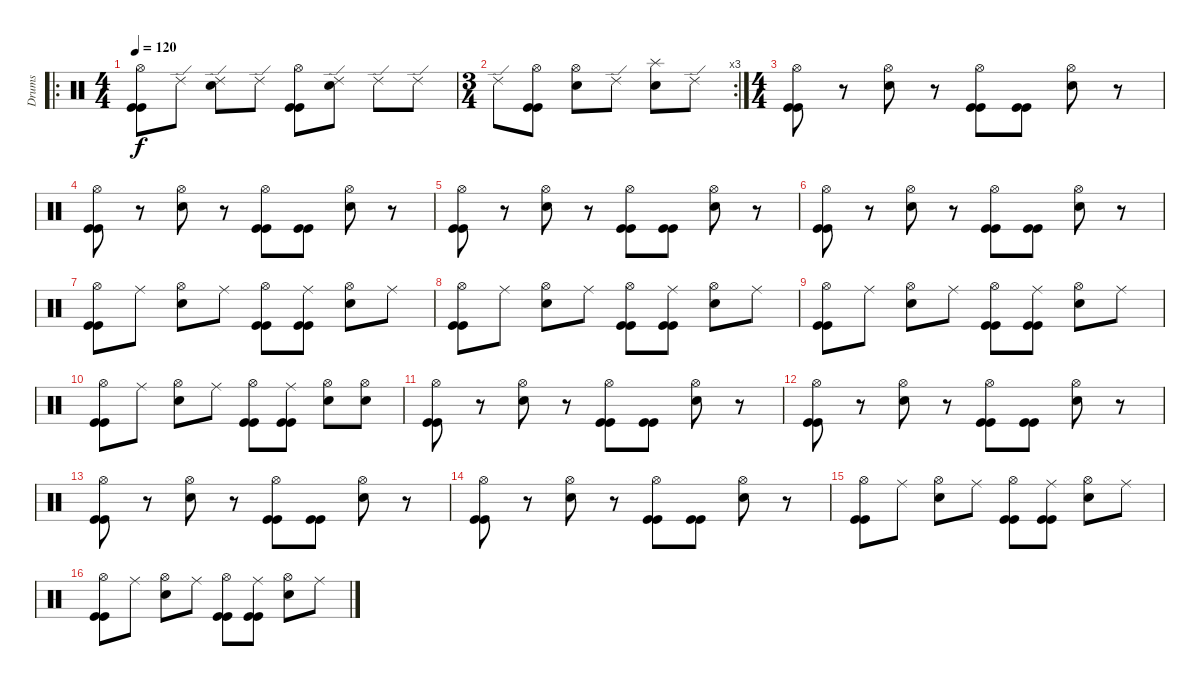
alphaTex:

\track ("Drums" "Drums") {instrument percussion}
\staff {score}
\articulation defaults
\ro
\ts (4 4)
\tempo 120
\clef neutral
\ks c
("Hi-Hat (open)" "Kick (hit)" "Kick (hit)").8{dy f} "Ride (edge) 2".8 ("Ride (edge) 2" "Electric Snare (hit)").8 "Ride (edge) 2".8 ("Hi-Hat (open)" "Kick (hit)" "Kick (hit)").8 ("Ride (edge) 2" "Electric Snare (hit)").8 "Ride (edge) 2".8 "Ride (edge) 2".8 |
\rc 3
\ts (3 4)
"Ride (edge) 2".8 ("Hi-Hat (open)" "Kick (hit)" "Kick (hit)").8 ("Hi-Hat (open)" "Electric Snare (hit)").8 "Ride (edge) 2".8 ("Splash (hit)" "Electric Snare (hit)").8 "Ride (edge) 2".8 |
\ts (4 4)
("Hi-Hat (open)" "Kick (hit)" "Kick (hit)").8 r.8 ("Hi-Hat (open)" "Electric Snare (hit)").8 r.8 ("Hi-Hat (open)" "Kick (hit)" "Kick (hit)").8 ("Kick (hit)" "Kick (hit)").8 ("Hi-Hat (open)" "Electric Snare (hit)").8 r.8 |
("Hi-Hat (open)" "Kick (hit)" "Kick (hit)").8 r.8 ("Hi-Hat (open)" "Electric Snare (hit)").8 r.8 ("Hi-Hat (open)" "Kick (hit)" "Kick (hit)").8 ("Kick (hit)" "Kick (hit)").8 ("Hi-Hat (open)" "Electric Snare (hit)").8 r.8 |
("Hi-Hat (open)" "Kick (hit)" "Kick (hit)").8 r.8 ("Hi-Hat (open)" "Electric Snare (hit)").8 r.8 ("Hi-Hat (open)" "Kick (hit)" "Kick (hit)").8 ("Kick (hit)" "Kick (hit)").8 ("Hi-Hat (open)" "Electric Snare (hit)").8 r.8 |
("Hi-Hat (open)" "Kick (hit)" "Kick (hit)").8 r.8 ("Hi-Hat (open)" "Electric Snare (hit)").8 r.8 ("Hi-Hat (open)" "Kick (hit)" "Kick (hit)").8 ("Kick (hit)" "Kick (hit)").8 ("Hi-Hat (open)" "Electric Snare (hit)").8 r.8 |
("Hi-Hat (open)" "Kick (hit)" "Kick (hit)").8 "Ride (middle)".8 ("Hi-Hat (open)" "Electric Snare (hit)").8 "Ride (middle)".8 ("Hi-Hat (open)" "Kick (hit)" "Kick (hit)").8 ("Ride (middle)" "Kick (hit)" "Kick (hit)").8 ("Hi-Hat (open)" "Electric Snare (hit)").8 "Ride (middle)".8 |
("Hi-Hat (open)" "Kick (hit)" "Kick (hit)").8 "Ride (middle)".8 ("Hi-Hat (open)" "Electric Snare (hit)").8 "Ride (middle)".8 ("Hi-Hat (open)" "Kick (hit)" "Kick (hit)").8 ("Ride (middle)" "Kick (hit)" "Kick (hit)").8 ("Hi-Hat (open)" "Electric Snare (hit)").8 "Ride (middle)".8 |
("Hi-Hat (open)" "Kick (hit)" "Kick (hit)").8 "Ride (middle)".8 ("Hi-Hat (open)" "Electric Snare (hit)").8 "Ride (middle)".8 ("Hi-Hat (open)" "Kick (hit)" "Kick (hit)").8 ("Ride (middle)" "Kick (hit)" "Kick (hit)").8 ("Hi-Hat (open)" "Electric Snare (hit)").8 "Ride (middle)".8 |
("Hi-Hat (open)" "Kick (hit)" "Kick (hit)").8 "Ride (middle)".8 ("Hi-Hat (open)" "Electric Snare (hit)").8 "Ride (middle)".8 ("Hi-Hat (open)" "Kick (hit)" "Kick (hit)").8 ("Ride (middle)" "Kick (hit)" "Kick (hit)").8 ("Hi-Hat (open)" "Electric Snare (hit)").8 ("Hi-Hat (open)" "Electric Snare (hit)").8 |
("Hi-Hat (open)" "Kick (hit)" "Kick (hit)").8 r.8 ("Hi-Hat (open)" "Electric Snare (hit)").8 r.8 ("Hi-Hat (open)" "Kick (hit)" "Kick (hit)").8 ("Kick (hit)" "Kick (hit)").8 ("Hi-Hat (open)" "Electric Snare (hit)").8 r.8 |
("Hi-Hat (open)" "Kick (hit)" "Kick (hit)").8 r.8 ("Hi-Hat (open)" "Electric Snare (hit)").8 r.8 ("Hi-Hat (open)" "Kick (hit)" "Kick (hit)").8 ("Kick (hit)" "Kick (hit)").8 ("Hi-Hat (open)" "Electric Snare (hit)").8 r.8 |
("Hi-Hat (open)" "Kick (hit)" "Kick (hit)").8 r.8 ("Hi-Hat (open)" "Electric Snare (hit)").8 r.8 ("Hi-Hat (open)" "Kick (hit)" "Kick (hit)").8 ("Kick (hit)" "Kick (hit)").8 ("Hi-Hat (open)" "Electric Snare (hit)").8 r.8 |
("Hi-Hat (open)" "Kick (hit)" "Kick (hit)").8 r.8 ("Hi-Hat (open)" "Electric Snare (hit)").8 r.8 ("Hi-Hat (open)" "Kick (hit)" "Kick (hit)").8 ("Kick (hit)" "Kick (hit)").8 ("Hi-Hat (open)" "Electric Snare (hit)").8 r.8 |
("Hi-Hat (open)" "Kick (hit)" "Kick (hit)").8 "Ride (middle)".8 ("Hi-Hat (open)" "Electric Snare (hit)").8 "Ride (middle)".8 ("Hi-Hat (open)" "Kick (hit)" "Kick (hit)").8 ("Ride (middle)" "Kick (hit)" "Kick (hit)").8 ("Hi-Hat (open)" "Electric Snare (hit)").8 "Ride (middle)".8 |
("Hi-Hat (open)" "Kick (hit)" "Kick (hit)").8 "Ride (middle)".8 ("Hi-Hat (open)" "Electric Snare (hit)").8 "Ride (middle)".8 ("Hi-Hat (open)" "Kick (hit)" "Kick (hit)").8 ("Ride (middle)" "Kick (hit)" "Kick (hit)").8 ("Hi-Hat (open)" "Electric Snare (hit)").8 "Ride (middle)".8
